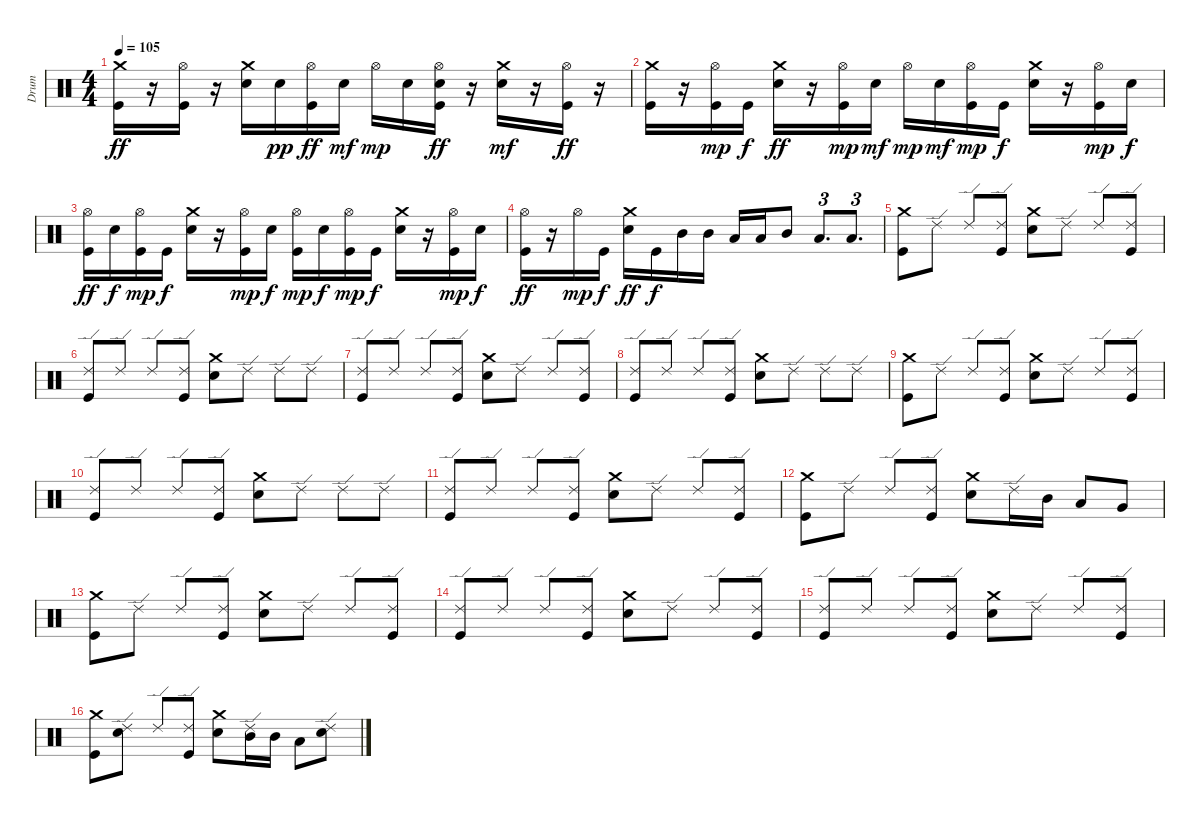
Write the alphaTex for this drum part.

\track ("Drum" "Drum") {instrument percussion}
\staff {score}
\articulation defaults
\ts (4 4)
\tempo 105
\clef neutral
\ks c
("Crash medium (hit)" "Kick (hit)").16{dy ff} r.16 ("Hi-Hat (open)" "Kick (hit)").16 r.16 ("Crash medium (hit)" "Electric Snare (hit)").16 "Electric Snare (hit)".16{dy pp} ("Hi-Hat (open)" "Kick (hit)").16{dy ff} "Electric Snare (hit)".16{dy mf} "Hi-Hat (open)".16{dy mp} "Electric Snare (hit)".16 ("Hi-Hat (open)" "Electric Snare (hit)" "Kick (hit)").16{dy ff} r.16 ("Crash medium (hit)" "Electric Snare (hit)").16{dy mf} r.16 ("Hi-Hat (open)" "Kick (hit)").16{dy ff} r.16 |
("Crash medium (hit)" "Kick (hit)").16 r.16 ("Hi-Hat (open)" "Kick (hit)").16{dy mp} "Kick (hit)".16{dy f} ("Crash medium (hit)" "Electric Snare (hit)").16{dy ff} r.16 ("Hi-Hat (open)" "Kick (hit)").16{dy mp} "Electric Snare (hit)".16{dy mf} "Hi-Hat (open)".16{dy mp} "Electric Snare (hit)".16{dy mf} ("Hi-Hat (open)" "Kick (hit)").16{dy mp} "Kick (hit)".16{dy f} ("Crash medium (hit)" "Electric Snare (hit)").16 r.16 ("Hi-Hat (open)" "Kick (hit)").16{dy mp} "Electric Snare (hit)".16{dy f} |
("Hi-Hat (open)" "Kick (hit)").16{dy ff} "Electric Snare (hit)".16{dy f} ("Hi-Hat (open)" "Kick (hit)").16{dy mp} "Kick (hit)".16{dy f} ("Crash medium (hit)" "Electric Snare (hit)").16 r.16 ("Hi-Hat (open)" "Kick (hit)").16{dy mp} "Electric Snare (hit)".16{dy f} ("Hi-Hat (open)" "Kick (hit)").16{dy mp} "Electric Snare (hit)".16{dy f} ("Hi-Hat (open)" "Kick (hit)").16{dy mp} "Kick (hit)".16{dy f} ("Crash medium (hit)" "Electric Snare (hit)").16 r.16 ("Hi-Hat (open)" "Kick (hit)").16{dy mp} "Electric Snare (hit)".16{dy f} |
("Hi-Hat (open)" "Kick (hit)").16{dy ff} r.16 "Hi-Hat (open)".16{dy mp} "Kick (hit)".16{dy f} ("Crash medium (hit)" "Electric Snare (hit)").16{dy ff} "Kick (hit)".16{dy f} "Mid Tom (hit)".16 "Mid Tom (hit)".16 "Low Tom (hit)".16 "Low Tom (hit)".16 "Mid Tom (hit)".8 "Low Floor Tom (hit)".8{d tu (3 2)} "Low Floor Tom (hit)".8{d tu (3 2)} |
("Crash medium (hit)" "Kick (hit)").8 "Ride (edge) 2".8 "Ride (edge) 2".8 ("Ride (edge) 2" "Kick (hit)").8 ("Crash medium (hit)" "Electric Snare (hit)").8 "Ride (edge) 2".8 "Ride (edge) 2".8 ("Ride (edge) 2" "Kick (hit)").8 |
("Ride (edge) 2" "Kick (hit)").8 "Ride (edge) 2".8 "Ride (edge) 2".8 ("Ride (edge) 2" "Kick (hit)").8 ("Crash medium (hit)" "Electric Snare (hit)").8 "Ride (edge) 2".8 "Ride (edge) 2".8 "Ride (edge) 2".8 |
("Ride (edge) 2" "Kick (hit)").8 "Ride (edge) 2".8 "Ride (edge) 2".8 ("Ride (edge) 2" "Kick (hit)").8 ("Crash medium (hit)" "Electric Snare (hit)").8 "Ride (edge) 2".8 "Ride (edge) 2".8 ("Ride (edge) 2" "Kick (hit)").8 |
("Ride (edge) 2" "Kick (hit)").8 "Ride (edge) 2".8 "Ride (edge) 2".8 ("Ride (edge) 2" "Kick (hit)").8 ("Crash medium (hit)" "Electric Snare (hit)").8 "Ride (edge) 2".8 "Ride (edge) 2".8 "Ride (edge) 2".8 |
("Crash medium (hit)" "Kick (hit)").8 "Ride (edge) 2".8 "Ride (edge) 2".8 ("Ride (edge) 2" "Kick (hit)").8 ("Crash medium (hit)" "Electric Snare (hit)").8 "Ride (edge) 2".8 "Ride (edge) 2".8 ("Ride (edge) 2" "Kick (hit)").8 |
("Ride (edge) 2" "Kick (hit)").8 "Ride (edge) 2".8 "Ride (edge) 2".8 ("Ride (edge) 2" "Kick (hit)").8 ("Crash medium (hit)" "Electric Snare (hit)").8 "Ride (edge) 2".8 "Ride (edge) 2".8 "Ride (edge) 2".8 |
("Ride (edge) 2" "Kick (hit)").8 "Ride (edge) 2".8 "Ride (edge) 2".8 ("Ride (edge) 2" "Kick (hit)").8 ("Crash medium (hit)" "Electric Snare (hit)").8 "Ride (edge) 2".8 "Ride (edge) 2".8 ("Ride (edge) 2" "Kick (hit)").8 |
("Crash medium (hit)" "Kick (hit)").8 "Ride (edge) 2".8 "Ride (edge) 2".8 ("Ride (edge) 2" "Kick (hit)").8 ("Crash medium (hit)" "Electric Snare (hit)").8 "Ride (edge) 2".16 "Mid Tom (hit)".16 "Low Tom (hit)".8 "Very Low Tom (hit)".8 |
("Crash medium (hit)" "Kick (hit)").8 "Ride (edge) 2".8 "Ride (edge) 2".8 ("Ride (edge) 2" "Kick (hit)").8 ("Crash medium (hit)" "Electric Snare (hit)").8 "Ride (edge) 2".8 "Ride (edge) 2".8 ("Ride (edge) 2" "Kick (hit)").8 |
("Ride (edge) 2" "Kick (hit)").8 "Ride (edge) 2".8 "Ride (edge) 2".8 ("Ride (edge) 2" "Kick (hit)").8 ("Crash medium (hit)" "Electric Snare (hit)").8 "Ride (edge) 2".8 "Ride (edge) 2".8 ("Ride (edge) 2" "Kick (hit)").8 |
("Ride (edge) 2" "Kick (hit)").8 "Ride (edge) 2".8 "Ride (edge) 2".8 ("Ride (edge) 2" "Kick (hit)").8 ("Crash medium (hit)" "Electric Snare (hit)").8 "Ride (edge) 2".8 "Ride (edge) 2".8 ("Ride (edge) 2" "Kick (hit)").8 |
("Crash medium (hit)" "Kick (hit)").8 ("Ride (edge) 2" "Electric Snare (hit)").8 "Ride (edge) 2".8 ("Ride (edge) 2" "Kick (hit)").8 ("Crash medium (hit)" "Electric Snare (hit)").8 ("Ride (edge) 2" "Mid Tom (hit)").16 "Mid Tom (hit)".16 "Low Tom (hit)".8 ("Ride (edge) 2" "Electric Snare (hit)").8
